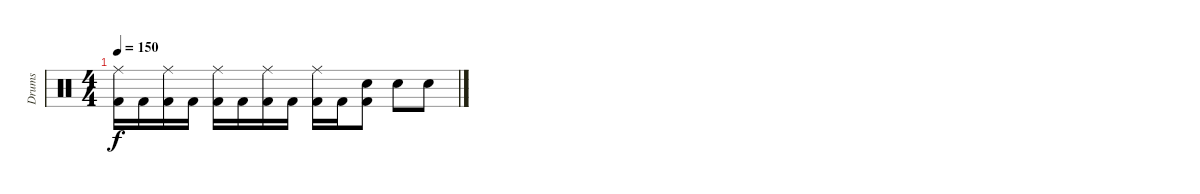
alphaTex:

\track ("Drums" "Drums") {instrument percussion}
\staff {score}
\articulation defaults
\ts (4 4)
\tempo 150
\clef neutral
\ks c
("Ride (middle)" "Kick (hit) 2").16{dy f} "Kick (hit) 2".16 ("Ride (middle)" "Kick (hit) 2").16 "Kick (hit) 2".16 ("Ride (middle)" "Kick (hit) 2").16 "Kick (hit) 2".16 ("Ride (middle)" "Kick (hit) 2").16 "Kick (hit) 2".16 ("Ride (middle)" "Kick (hit) 2").16 "Kick (hit) 2".16 ("Snare (hit) 2" "Kick (hit) 2").8 "Snare (hit) 2".8 "Snare (hit) 2".8
